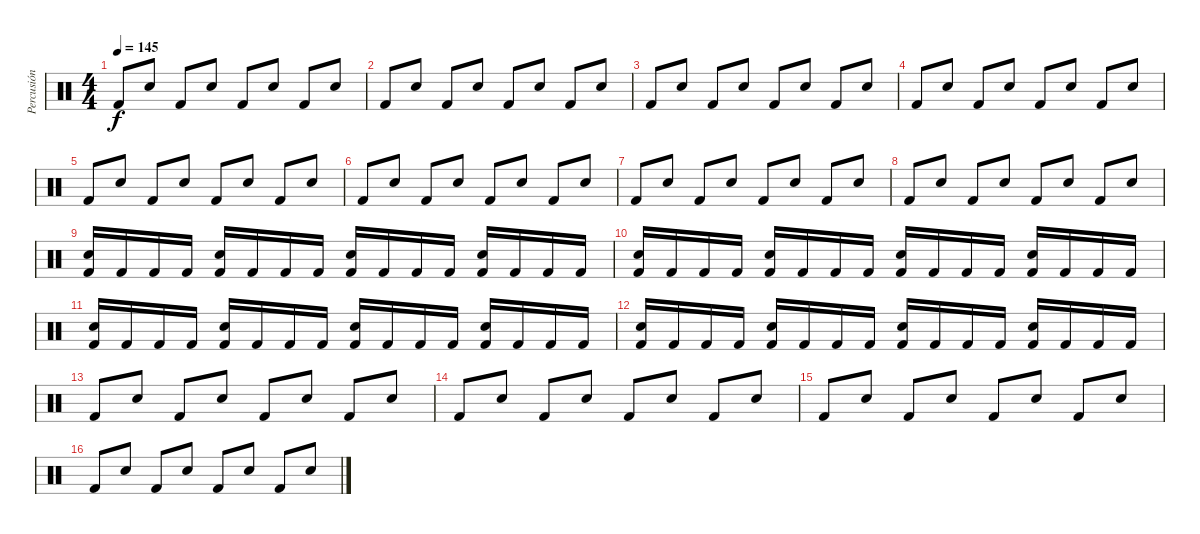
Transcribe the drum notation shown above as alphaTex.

\track ("Percusión" "Percusión") {instrument percussion}
\staff {score}
\articulation defaults
\ts (4 4)
\tempo 145
\clef neutral
\ks c "Kick (hit) 2".8{dy f} "Snare (hit) 2".8 "Kick (hit) 2".8 "Snare (hit) 2".8 "Kick (hit) 2".8 "Snare (hit) 2".8 "Kick (hit) 2".8 "Snare (hit) 2".8
|
"Kick (hit) 2".8 "Snare (hit) 2".8 "Kick (hit) 2".8 "Snare (hit) 2".8 "Kick (hit) 2".8 "Snare (hit) 2".8 "Kick (hit) 2".8 "Snare (hit) 2".8 |
"Kick (hit) 2".8 "Snare (hit) 2".8 "Kick (hit) 2".8 "Snare (hit) 2".8 "Kick (hit) 2".8 "Snare (hit) 2".8 "Kick (hit) 2".8 "Snare (hit) 2".8 |
"Kick (hit) 2".8 "Snare (hit) 2".8 "Kick (hit) 2".8 "Snare (hit) 2".8 "Kick (hit) 2".8 "Snare (hit) 2".8 "Kick (hit) 2".8 "Snare (hit) 2".8 |
"Kick (hit) 2".8 "Snare (hit) 2".8 "Kick (hit) 2".8 "Snare (hit) 2".8 "Kick (hit) 2".8 "Snare (hit) 2".8 "Kick (hit) 2".8 "Snare (hit) 2".8 |
"Kick (hit) 2".8 "Snare (hit) 2".8 "Kick (hit) 2".8 "Snare (hit) 2".8 "Kick (hit) 2".8 "Snare (hit) 2".8 "Kick (hit) 2".8 "Snare (hit) 2".8 |
"Kick (hit) 2".8 "Snare (hit) 2".8 "Kick (hit) 2".8 "Snare (hit) 2".8 "Kick (hit) 2".8 "Snare (hit) 2".8 "Kick (hit) 2".8 "Snare (hit) 2".8 |
"Kick (hit) 2".8 "Snare (hit) 2".8 "Kick (hit) 2".8 "Snare (hit) 2".8 "Kick (hit) 2".8 "Snare (hit) 2".8 "Kick (hit) 2".8 "Snare (hit) 2".8 |
("Snare (hit) 2" "Kick (hit) 2").16 "Kick (hit) 2".16 "Kick (hit) 2".16 "Kick (hit) 2".16 ("Snare (hit) 2" "Kick (hit) 2").16 "Kick (hit) 2".16 "Kick (hit) 2".16 "Kick (hit) 2".16 ("Snare (hit) 2" "Kick (hit) 2").16 "Kick (hit) 2".16 "Kick (hit) 2".16 "Kick (hit) 2".16 ("Snare (hit) 2" "Kick (hit) 2").16 "Kick (hit) 2".16 "Kick (hit) 2".16 "Kick (hit) 2".16 |
("Snare (hit) 2" "Kick (hit) 2").16 "Kick (hit) 2".16 "Kick (hit) 2".16 "Kick (hit) 2".16 ("Snare (hit) 2" "Kick (hit) 2").16 "Kick (hit) 2".16 "Kick (hit) 2".16 "Kick (hit) 2".16 ("Snare (hit) 2" "Kick (hit) 2").16 "Kick (hit) 2".16 "Kick (hit) 2".16 "Kick (hit) 2".16 ("Snare (hit) 2" "Kick (hit) 2").16 "Kick (hit) 2".16 "Kick (hit) 2".16 "Kick (hit) 2".16 |
("Snare (hit) 2" "Kick (hit) 2").16 "Kick (hit) 2".16 "Kick (hit) 2".16 "Kick (hit) 2".16 ("Snare (hit) 2" "Kick (hit) 2").16 "Kick (hit) 2".16 "Kick (hit) 2".16 "Kick (hit) 2".16 ("Snare (hit) 2" "Kick (hit) 2").16 "Kick (hit) 2".16 "Kick (hit) 2".16 "Kick (hit) 2".16 ("Snare (hit) 2" "Kick (hit) 2").16 "Kick (hit) 2".16 "Kick (hit) 2".16 "Kick (hit) 2".16 |
("Snare (hit) 2" "Kick (hit) 2").16 "Kick (hit) 2".16 "Kick (hit) 2".16 "Kick (hit) 2".16 ("Snare (hit) 2" "Kick (hit) 2").16 "Kick (hit) 2".16 "Kick (hit) 2".16 "Kick (hit) 2".16 ("Snare (hit) 2" "Kick (hit) 2").16 "Kick (hit) 2".16 "Kick (hit) 2".16 "Kick (hit) 2".16 ("Snare (hit) 2" "Kick (hit) 2").16 "Kick (hit) 2".16 "Kick (hit) 2".16 "Kick (hit) 2".16 |
"Kick (hit) 2".8 "Snare (hit) 2".8 "Kick (hit) 2".8 "Snare (hit) 2".8 "Kick (hit) 2".8 "Snare (hit) 2".8 "Kick (hit) 2".8 "Snare (hit) 2".8 |
"Kick (hit) 2".8 "Snare (hit) 2".8 "Kick (hit) 2".8 "Snare (hit) 2".8 "Kick (hit) 2".8 "Snare (hit) 2".8 "Kick (hit) 2".8 "Snare (hit) 2".8 |
"Kick (hit) 2".8 "Snare (hit) 2".8 "Kick (hit) 2".8 "Snare (hit) 2".8 "Kick (hit) 2".8 "Snare (hit) 2".8 "Kick (hit) 2".8 "Snare (hit) 2".8 |
"Kick (hit) 2".8 "Snare (hit) 2".8 "Kick (hit) 2".8 "Snare (hit) 2".8 "Kick (hit) 2".8 "Snare (hit) 2".8 "Kick (hit) 2".8 "Snare (hit) 2".8
